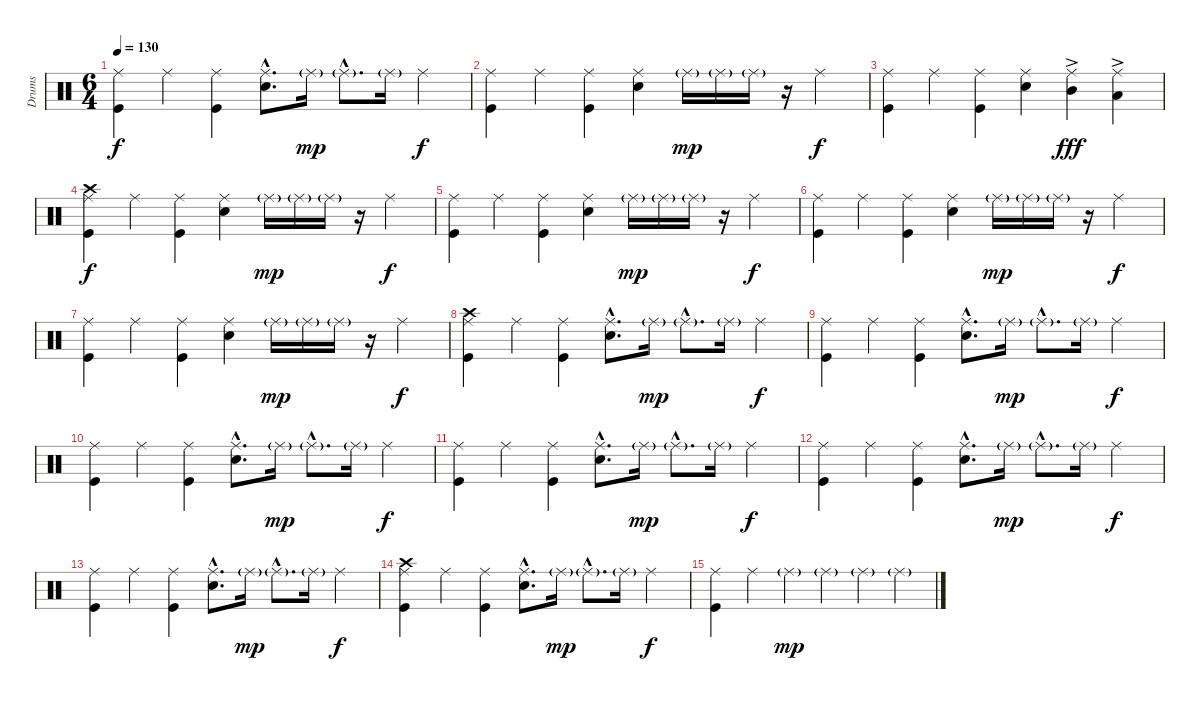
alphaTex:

\track ("Drums" "Drums") {instrument percussion}
\staff {score}
\articulation defaults
\ts (6 4)
\tempo 130
\clef neutral
\ks c
("Ride (middle)" "Kick (hit)").4{dy f} "Ride (middle)".4 ("Ride (middle)" "Kick (hit)").4 ("Ride (middle)"{hac} "Snare (hit) 2"{hac}).8{d} "Ride (middle)"{g}.16{dy mp} "Ride (middle)"{g hac}.8{d} "Ride (middle)"{g}.16 "Ride (middle)".4{dy f} |
("Ride (middle)" "Kick (hit)").4 "Ride (middle)".4 ("Ride (middle)" "Kick (hit)").4 ("Ride (middle)" "Snare (hit) 2").4 "Ride (middle)"{g}.16{dy mp} "Ride (middle)"{g}.16 "Ride (middle)"{g}.16 r.16 "Ride (middle)".4{dy f} |
("Ride (middle)" "Kick (hit)").4 "Ride (middle)".4 ("Ride (middle)" "Kick (hit)").4 ("Ride (middle)" "Snare (hit) 2").4 ("Ride (middle)" "Mid Tom (hit)"{ac}).4{dy fff} ("Ride (middle)" "Low Tom (hit)"{ac}).4 |
\section ("" "")
("Ride (middle)" "Crash high (hit)" "Kick (hit)").4{dy f} "Ride (middle)".4 ("Ride (middle)" "Kick (hit)").4 ("Ride (middle)" "Snare (hit) 2").4 "Ride (middle)"{g}.16{dy mp} "Ride (middle)"{g}.16 "Ride (middle)"{g}.16 r.16 "Ride (middle)".4{dy f} |
("Ride (middle)" "Kick (hit)").4 "Ride (middle)".4 ("Ride (middle)" "Kick (hit)").4 ("Ride (middle)" "Snare (hit) 2").4 "Ride (middle)"{g}.16{dy mp} "Ride (middle)"{g}.16 "Ride (middle)"{g}.16 r.16 "Ride (middle)".4{dy f} |
("Ride (middle)" "Kick (hit)").4 "Ride (middle)".4 ("Ride (middle)" "Kick (hit)").4 ("Ride (middle)" "Snare (hit) 2").4 "Ride (middle)"{g}.16{dy mp} "Ride (middle)"{g}.16 "Ride (middle)"{g}.16 r.16 "Ride (middle)".4{dy f} |
("Ride (middle)" "Kick (hit)").4 "Ride (middle)".4 ("Ride (middle)" "Kick (hit)").4 ("Ride (middle)" "Snare (hit) 2").4 "Ride (middle)"{g}.16{dy mp} "Ride (middle)"{g}.16 "Ride (middle)"{g}.16 r.16 "Ride (middle)".4{dy f} |
("Ride (middle)" "Crash high (hit)" "Kick (hit)").4 "Ride (middle)".4 ("Ride (middle)" "Kick (hit)").4 ("Ride (middle)"{hac} "Snare (hit) 2"{hac}).8{d} "Ride (middle)"{g}.16{dy mp} "Ride (middle)"{g hac}.8{d} "Ride (middle)"{g}.16 "Ride (middle)".4{dy f} |
("Ride (middle)" "Kick (hit)").4 "Ride (middle)".4 ("Ride (middle)" "Kick (hit)").4 ("Ride (middle)"{hac} "Snare (hit) 2"{hac}).8{d} "Ride (middle)"{g}.16{dy mp} "Ride (middle)"{g hac}.8{d} "Ride (middle)"{g}.16 "Ride (middle)".4{dy f} |
("Ride (middle)" "Kick (hit)").4 "Ride (middle)".4 ("Ride (middle)" "Kick (hit)").4 ("Ride (middle)"{hac} "Snare (hit) 2"{hac}).8{d} "Ride (middle)"{g}.16{dy mp} "Ride (middle)"{g hac}.8{d} "Ride (middle)"{g}.16 "Ride (middle)".4{dy f} |
("Ride (middle)" "Kick (hit)").4 "Ride (middle)".4 ("Ride (middle)" "Kick (hit)").4 ("Ride (middle)"{hac} "Snare (hit) 2"{hac}).8{d} "Ride (middle)"{g}.16{dy mp} "Ride (middle)"{g hac}.8{d} "Ride (middle)"{g}.16 "Ride (middle)".4{dy f} |
("Ride (middle)" "Kick (hit)").4 "Ride (middle)".4 ("Ride (middle)" "Kick (hit)").4 ("Ride (middle)"{hac} "Snare (hit) 2"{hac}).8{d} "Ride (middle)"{g}.16{dy mp} "Ride (middle)"{g hac}.8{d} "Ride (middle)"{g}.16 "Ride (middle)".4{dy f} |
("Ride (middle)" "Kick (hit)").4 "Ride (middle)".4 ("Ride (middle)" "Kick (hit)").4 ("Ride (middle)"{hac} "Snare (hit) 2"{hac}).8{d} "Ride (middle)"{g}.16{dy mp} "Ride (middle)"{g hac}.8{d} "Ride (middle)"{g}.16 "Ride (middle)".4{dy f} |
("Ride (middle)" "Crash high (hit)" "Kick (hit)").4 "Ride (middle)".4 ("Ride (middle)" "Kick (hit)").4 ("Ride (middle)"{hac} "Snare (hit) 2"{hac}).8{d} "Ride (middle)"{g}.16{dy mp} "Ride (middle)"{g hac}.8{d} "Ride (middle)"{g}.16 "Ride (middle)".4{dy f} |
\section ("" "")
("Ride (middle)" "Kick (hit)").4 "Ride (middle)".4 "Ride (middle)"{g}.4{dy mp} "Ride (middle)"{g}.4 "Ride (middle)"{g}.4 "Ride (middle)"{g}.4
